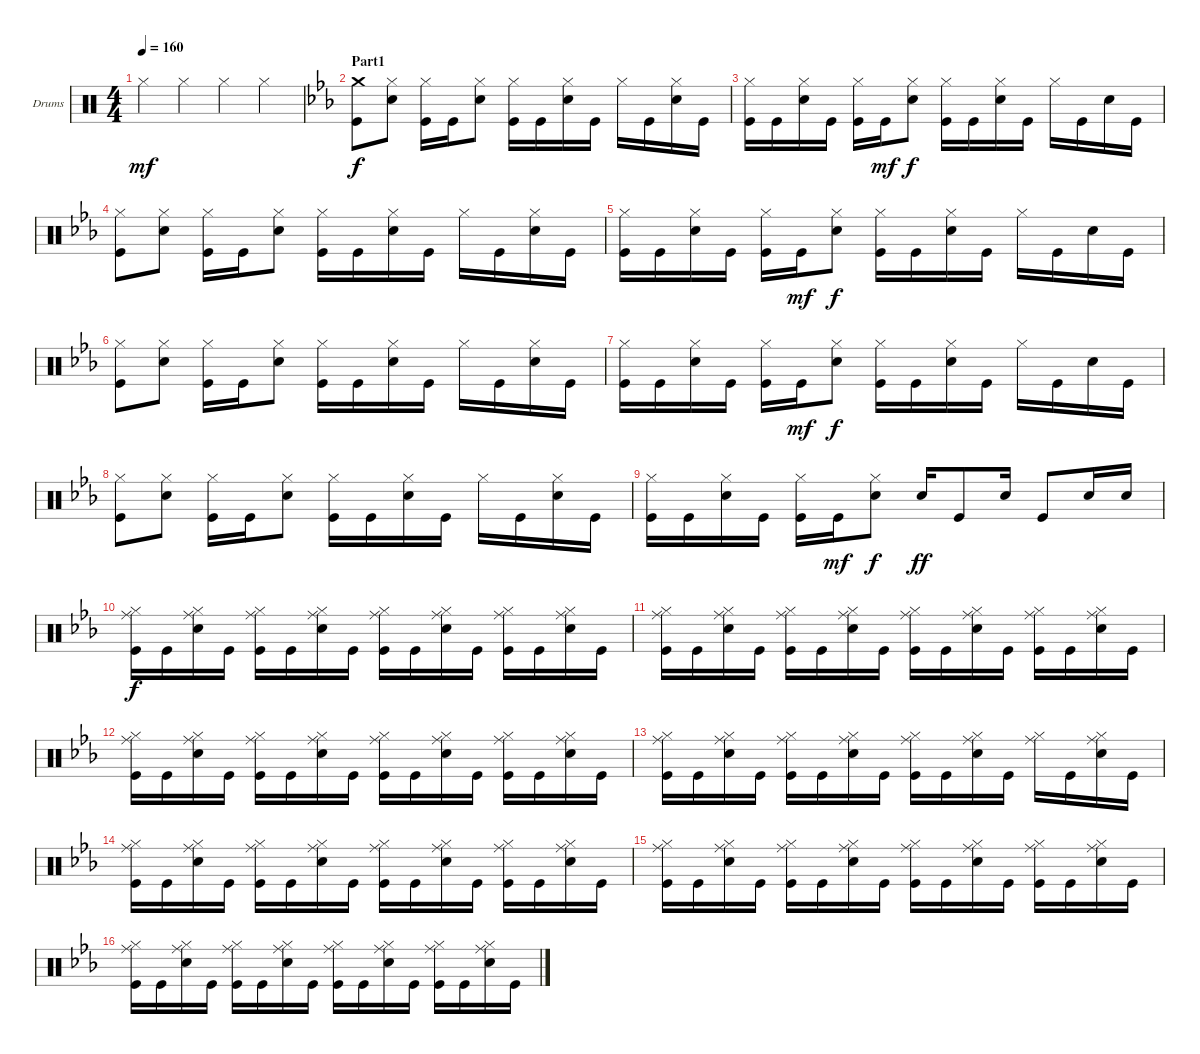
\defaultSystemsLayout 4
\bracketExtendMode groupsimilarinstruments
\firstSystemTrackNameOrientation horizontal
\otherSystemsTrackNameOrientation horizontal
\track ("Drumkit" "Drums") {instrument percussion}
\staff {score}
\articulation defaults
\ts (4 4)
\tempo 160
\clef neutral
\ks c "Hi-Hat (closed)".4{dy mf} "Hi-Hat (closed)".4 "Hi-Hat (closed)".4 "Hi-Hat (closed)".4
|
\section ("" "Part1")
\ks cminor
("Kick (hit)" "Crash medium (hit)").8{dy f} ("Snare (hit) 2" "Hi-Hat (closed)").8 ("Kick (hit)" "Hi-Hat (closed)").16 "Kick (hit)".16 ("Snare (hit) 2" "Hi-Hat (closed)").8 ("Kick (hit)" "Hi-Hat (closed)").16 "Kick (hit)".16 ("Snare (hit) 2" "Hi-Hat (closed)").16 "Kick (hit)".16 "Hi-Hat (closed)".16 "Kick (hit)".16 ("Snare (hit) 2" "Hi-Hat (closed)").16 "Kick (hit)".16 |
("Kick (hit)" "Hi-Hat (closed)").16 "Kick (hit)".16 ("Snare (hit) 2" "Hi-Hat (closed)").16 "Kick (hit)".16 ("Kick (hit)" "Hi-Hat (closed)").16 "Kick (hit)".16{dy mf} ("Snare (hit) 2" "Hi-Hat (closed)").8{dy f} ("Kick (hit)" "Hi-Hat (closed)").16 "Kick (hit)".16 ("Snare (hit) 2" "Hi-Hat (closed)").16 "Kick (hit)".16 "Hi-Hat (closed)".16 "Kick (hit)".16 "Snare (hit) 2".16 "Kick (hit)".16 |
("Kick (hit)" "Hi-Hat (closed)").8 ("Snare (hit) 2" "Hi-Hat (closed)").8 ("Kick (hit)" "Hi-Hat (closed)").16 "Kick (hit)".16 ("Snare (hit) 2" "Hi-Hat (closed)").8 ("Kick (hit)" "Hi-Hat (closed)").16 "Kick (hit)".16 ("Snare (hit) 2" "Hi-Hat (closed)").16 "Kick (hit)".16 "Hi-Hat (closed)".16 "Kick (hit)".16 ("Snare (hit) 2" "Hi-Hat (closed)").16 "Kick (hit)".16 |
("Kick (hit)" "Hi-Hat (closed)").16 "Kick (hit)".16 ("Snare (hit) 2" "Hi-Hat (closed)").16 "Kick (hit)".16 ("Kick (hit)" "Hi-Hat (closed)").16 "Kick (hit)".16{dy mf} ("Snare (hit) 2" "Hi-Hat (closed)").8{dy f} ("Kick (hit)" "Hi-Hat (closed)").16 "Kick (hit)".16 ("Snare (hit) 2" "Hi-Hat (closed)").16 "Kick (hit)".16 "Hi-Hat (closed)".16 "Kick (hit)".16 "Snare (hit) 2".16 "Kick (hit)".16 |
("Kick (hit)" "Hi-Hat (closed)").8 ("Snare (hit) 2" "Hi-Hat (closed)").8 ("Kick (hit)" "Hi-Hat (closed)").16 "Kick (hit)".16 ("Snare (hit) 2" "Hi-Hat (closed)").8 ("Kick (hit)" "Hi-Hat (closed)").16 "Kick (hit)".16 ("Snare (hit) 2" "Hi-Hat (closed)").16 "Kick (hit)".16 "Hi-Hat (closed)".16 "Kick (hit)".16 ("Snare (hit) 2" "Hi-Hat (closed)").16 "Kick (hit)".16 |
("Kick (hit)" "Hi-Hat (closed)").16 "Kick (hit)".16 ("Snare (hit) 2" "Hi-Hat (closed)").16 "Kick (hit)".16 ("Kick (hit)" "Hi-Hat (closed)").16 "Kick (hit)".16{dy mf} ("Snare (hit) 2" "Hi-Hat (closed)").8{dy f} ("Kick (hit)" "Hi-Hat (closed)").16 "Kick (hit)".16 ("Snare (hit) 2" "Hi-Hat (closed)").16 "Kick (hit)".16 "Hi-Hat (closed)".16 "Kick (hit)".16 "Snare (hit) 2".16 "Kick (hit)".16 |
("Kick (hit)" "Hi-Hat (closed)").8 ("Snare (hit) 2" "Hi-Hat (closed)").8 ("Kick (hit)" "Hi-Hat (closed)").16 "Kick (hit)".16 ("Snare (hit) 2" "Hi-Hat (closed)").8 ("Kick (hit)" "Hi-Hat (closed)").16 "Kick (hit)".16 ("Snare (hit) 2" "Hi-Hat (closed)").16 "Kick (hit)".16 "Hi-Hat (closed)".16 "Kick (hit)".16 ("Snare (hit) 2" "Hi-Hat (closed)").16 "Kick (hit)".16 |
("Kick (hit)" "Hi-Hat (closed)").16 "Kick (hit)".16 ("Snare (hit) 2" "Hi-Hat (closed)").16 "Kick (hit)".16 ("Kick (hit)" "Hi-Hat (closed)").16 "Kick (hit)".16{dy mf} ("Snare (hit) 2" "Hi-Hat (closed)").8{dy f} "Snare (hit) 2".16{dy ff} "Kick (hit)".8 "Snare (hit) 2".16 "Kick (hit)".8 "Snare (hit) 2".16 "Snare (hit) 2".16 |
\section ("" "")
("Kick (hit)" "Ride (middle)" "Hi-Hat (closed)").16{dy f} "Kick (hit)".16 ("Snare (hit) 2" "Hi-Hat (closed)" "Ride (middle)").16 "Kick (hit)".16 ("Kick (hit)" "Hi-Hat (closed)" "Ride (middle)").16 "Kick (hit)".16 ("Snare (hit) 2" "Hi-Hat (closed)" "Ride (middle)").16 "Kick (hit)".16 ("Kick (hit)" "Hi-Hat (closed)" "Ride (middle)").16 "Kick (hit)".16 ("Snare (hit) 2" "Hi-Hat (closed)" "Ride (middle)").16 "Kick (hit)".16 ("Kick (hit)" "Hi-Hat (closed)" "Ride (middle)").16 "Kick (hit)".16 ("Snare (hit) 2" "Hi-Hat (closed)" "Ride (middle)").16 "Kick (hit)".16 |
("Kick (hit)" "Ride (middle)" "Hi-Hat (closed)").16 "Kick (hit)".16 ("Snare (hit) 2" "Hi-Hat (closed)" "Ride (middle)").16 "Kick (hit)".16 ("Kick (hit)" "Hi-Hat (closed)" "Ride (middle)").16 "Kick (hit)".16 ("Snare (hit) 2" "Hi-Hat (closed)" "Ride (middle)").16 "Kick (hit)".16 ("Kick (hit)" "Hi-Hat (closed)" "Ride (middle)").16 "Kick (hit)".16 ("Snare (hit) 2" "Hi-Hat (closed)" "Ride (middle)").16 "Kick (hit)".16 ("Kick (hit)" "Hi-Hat (closed)" "Ride (middle)").16 "Kick (hit)".16 ("Snare (hit) 2" "Hi-Hat (closed)" "Ride (middle)").16 "Kick (hit)".16 |
("Kick (hit)" "Ride (middle)" "Hi-Hat (closed)").16 "Kick (hit)".16 ("Snare (hit) 2" "Hi-Hat (closed)" "Ride (middle)").16 "Kick (hit)".16 ("Kick (hit)" "Hi-Hat (closed)" "Ride (middle)").16 "Kick (hit)".16 ("Snare (hit) 2" "Hi-Hat (closed)" "Ride (middle)").16 "Kick (hit)".16 ("Kick (hit)" "Hi-Hat (closed)" "Ride (middle)").16 "Kick (hit)".16 ("Snare (hit) 2" "Hi-Hat (closed)" "Ride (middle)").16 "Kick (hit)".16 ("Kick (hit)" "Hi-Hat (closed)" "Ride (middle)").16 "Kick (hit)".16 ("Snare (hit) 2" "Hi-Hat (closed)" "Ride (middle)").16 "Kick (hit)".16 |
("Kick (hit)" "Ride (middle)" "Hi-Hat (closed)").16 "Kick (hit)".16 ("Snare (hit) 2" "Hi-Hat (closed)" "Ride (middle)").16 "Kick (hit)".16 ("Kick (hit)" "Hi-Hat (closed)" "Ride (middle)").16 "Kick (hit)".16 ("Snare (hit) 2" "Hi-Hat (closed)" "Ride (middle)").16 "Kick (hit)".16 ("Kick (hit)" "Hi-Hat (closed)" "Ride (middle)").16 "Kick (hit)".16 ("Snare (hit) 2" "Hi-Hat (closed)" "Ride (middle)").16 "Kick (hit)".16 ("Hi-Hat (closed)" "Ride (middle)").16 "Kick (hit)".16 ("Snare (hit) 2" "Hi-Hat (closed)" "Ride (middle)").16 "Kick (hit)".16 |
("Kick (hit)" "Ride (middle)" "Hi-Hat (closed)").16 "Kick (hit)".16 ("Snare (hit) 2" "Hi-Hat (closed)" "Ride (middle)").16 "Kick (hit)".16 ("Kick (hit)" "Hi-Hat (closed)" "Ride (middle)").16 "Kick (hit)".16 ("Snare (hit) 2" "Hi-Hat (closed)" "Ride (middle)").16 "Kick (hit)".16 ("Kick (hit)" "Hi-Hat (closed)" "Ride (middle)").16 "Kick (hit)".16 ("Snare (hit) 2" "Hi-Hat (closed)" "Ride (middle)").16 "Kick (hit)".16 ("Kick (hit)" "Hi-Hat (closed)" "Ride (middle)").16 "Kick (hit)".16 ("Snare (hit) 2" "Hi-Hat (closed)" "Ride (middle)").16 "Kick (hit)".16 |
("Kick (hit)" "Ride (middle)" "Hi-Hat (closed)").16 "Kick (hit)".16 ("Snare (hit) 2" "Hi-Hat (closed)" "Ride (middle)").16 "Kick (hit)".16 ("Kick (hit)" "Hi-Hat (closed)" "Ride (middle)").16 "Kick (hit)".16 ("Snare (hit) 2" "Hi-Hat (closed)" "Ride (middle)").16 "Kick (hit)".16 ("Kick (hit)" "Hi-Hat (closed)" "Ride (middle)").16 "Kick (hit)".16 ("Snare (hit) 2" "Hi-Hat (closed)" "Ride (middle)").16 "Kick (hit)".16 ("Kick (hit)" "Hi-Hat (closed)" "Ride (middle)").16 "Kick (hit)".16 ("Snare (hit) 2" "Hi-Hat (closed)" "Ride (middle)").16 "Kick (hit)".16 |
("Kick (hit)" "Ride (middle)" "Hi-Hat (closed)").16 "Kick (hit)".16 ("Snare (hit) 2" "Hi-Hat (closed)" "Ride (middle)").16 "Kick (hit)".16 ("Kick (hit)" "Hi-Hat (closed)" "Ride (middle)").16 "Kick (hit)".16 ("Snare (hit) 2" "Hi-Hat (closed)" "Ride (middle)").16 "Kick (hit)".16 ("Kick (hit)" "Hi-Hat (closed)" "Ride (middle)").16 "Kick (hit)".16 ("Snare (hit) 2" "Hi-Hat (closed)" "Ride (middle)").16 "Kick (hit)".16 ("Kick (hit)" "Hi-Hat (closed)" "Ride (middle)").16 "Kick (hit)".16 ("Snare (hit) 2" "Hi-Hat (closed)" "Ride (middle)").16 "Kick (hit)".16
